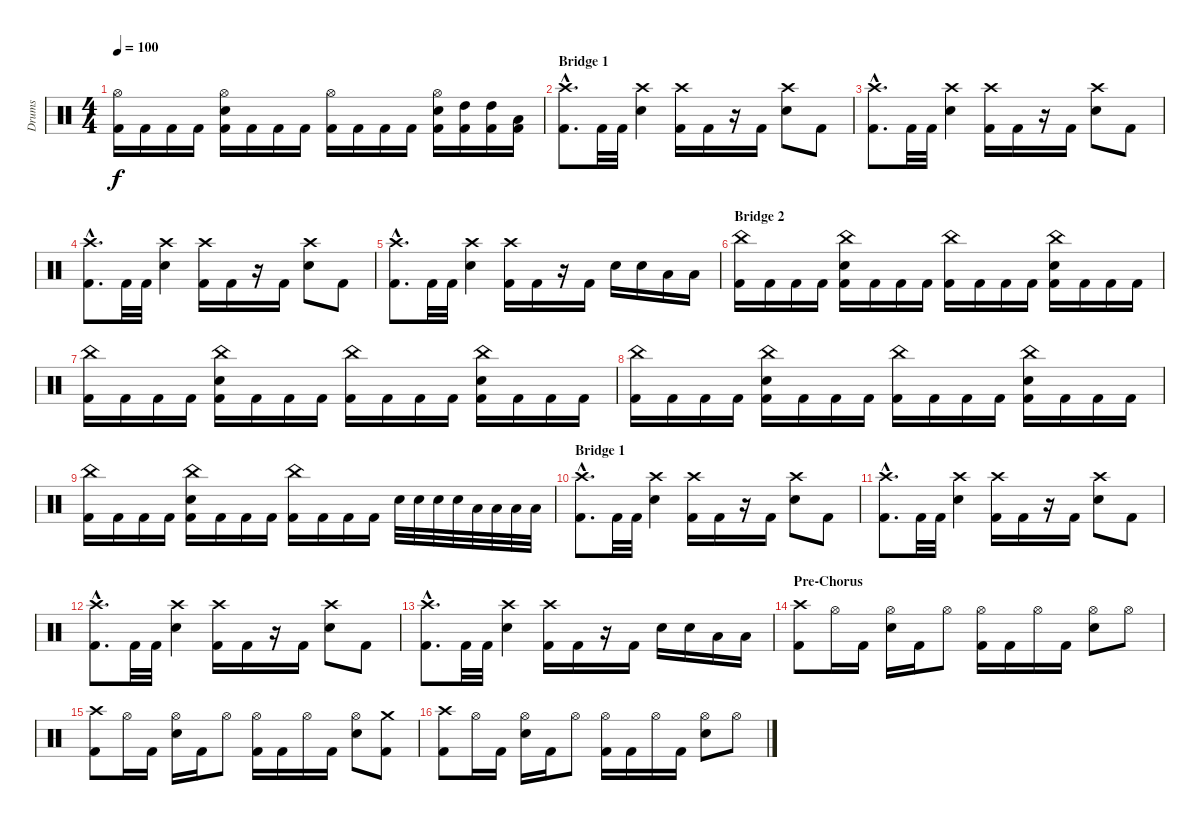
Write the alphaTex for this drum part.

\track ("Drums" "Drums") {instrument percussion}
\staff {score}
\articulation defaults
\ts (4 4)
\tempo 100
\clef neutral
\ks c
("Hi-Hat (open)" "Kick (hit) 2").16{dy f} "Kick (hit) 2".16 "Kick (hit) 2".16 "Kick (hit) 2".16 ("Hi-Hat (open)" "Snare (hit) 2" "Kick (hit) 2").16 "Kick (hit) 2".16 "Kick (hit) 2".16 "Kick (hit) 2".16 ("Hi-Hat (open)" "Kick (hit) 2").16 "Kick (hit) 2".16 "Kick (hit) 2".16 "Kick (hit) 2".16 ("Hi-Hat (open)" "Snare (hit) 2" "Kick (hit) 2").16 ("High Tom (hit)" "Kick (hit) 2").16 ("High Tom (hit)" "Kick (hit) 2").16 ("Low Tom (hit)" "Kick (hit) 2").16 |
\section ("" "Bridge 1")
("Crash high (hit)"{hac} "Kick (hit) 2"{hac}).8{d} "Kick (hit) 2".32 "Kick (hit) 2".32 ("Crash high (hit)" "Snare (hit) 2").4 ("Crash high (hit)" "Kick (hit) 2").16 "Kick (hit) 2".16 r.16 "Kick (hit) 2".16 ("Crash high (hit)" "Snare (hit) 2").8 "Kick (hit) 2".8 |
("Crash high (hit)"{hac} "Kick (hit) 2"{hac}).8{d} "Kick (hit) 2".32 "Kick (hit) 2".32 ("Crash high (hit)" "Snare (hit) 2").4 ("Crash high (hit)" "Kick (hit) 2").16 "Kick (hit) 2".16 r.16 "Kick (hit) 2".16 ("Crash high (hit)" "Snare (hit) 2").8 "Kick (hit) 2".8 |
("Crash high (hit)"{hac} "Kick (hit) 2"{hac}).8{d} "Kick (hit) 2".32 "Kick (hit) 2".32 ("Crash high (hit)" "Snare (hit) 2").4 ("Crash high (hit)" "Kick (hit) 2").16 "Kick (hit) 2".16 r.16 "Kick (hit) 2".16 ("Crash high (hit)" "Snare (hit) 2").8 "Kick (hit) 2".8 |
("Crash high (hit)"{hac} "Kick (hit) 2"{hac}).8{d} "Kick (hit) 2".32 "Kick (hit) 2".32 ("Crash high (hit)" "Snare (hit) 2").4 ("Crash high (hit)" "Kick (hit) 2").16 "Kick (hit) 2".16 r.16 "Kick (hit) 2".16 "Snare (hit) 2".16 "Snare (hit) 2".16 "Low Tom (hit)".16 "Low Tom (hit)".16 |
\section ("" "Bridge 2")
("China (hit)" "Kick (hit) 2").16 "Kick (hit) 2".16 "Kick (hit) 2".16 "Kick (hit) 2".16 ("China (hit)" "Snare (hit) 2" "Kick (hit) 2").16 "Kick (hit) 2".16 "Kick (hit) 2".16 "Kick (hit) 2".16 ("China (hit)" "Kick (hit) 2").16 "Kick (hit) 2".16 "Kick (hit) 2".16 "Kick (hit) 2".16 ("China (hit)" "Snare (hit) 2" "Kick (hit) 2").16 "Kick (hit) 2".16 "Kick (hit) 2".16 "Kick (hit) 2".16 |
("China (hit)" "Kick (hit) 2").16 "Kick (hit) 2".16 "Kick (hit) 2".16 "Kick (hit) 2".16 ("China (hit)" "Snare (hit) 2" "Kick (hit) 2").16 "Kick (hit) 2".16 "Kick (hit) 2".16 "Kick (hit) 2".16 ("China (hit)" "Kick (hit) 2").16 "Kick (hit) 2".16 "Kick (hit) 2".16 "Kick (hit) 2".16 ("China (hit)" "Snare (hit) 2" "Kick (hit) 2").16 "Kick (hit) 2".16 "Kick (hit) 2".16 "Kick (hit) 2".16 |
("China (hit)" "Kick (hit) 2").16 "Kick (hit) 2".16 "Kick (hit) 2".16 "Kick (hit) 2".16 ("China (hit)" "Snare (hit) 2" "Kick (hit) 2").16 "Kick (hit) 2".16 "Kick (hit) 2".16 "Kick (hit) 2".16 ("China (hit)" "Kick (hit) 2").16 "Kick (hit) 2".16 "Kick (hit) 2".16 "Kick (hit) 2".16 ("China (hit)" "Snare (hit) 2" "Kick (hit) 2").16 "Kick (hit) 2".16 "Kick (hit) 2".16 "Kick (hit) 2".16 |
("China (hit)" "Kick (hit) 2").16 "Kick (hit) 2".16 "Kick (hit) 2".16 "Kick (hit) 2".16 ("China (hit)" "Snare (hit) 2" "Kick (hit) 2").16 "Kick (hit) 2".16 "Kick (hit) 2".16 "Kick (hit) 2".16 ("China (hit)" "Kick (hit) 2").16 "Kick (hit) 2".16 "Kick (hit) 2".16 "Kick (hit) 2".16 "Snare (hit) 2".32 "Snare (hit) 2".32 "Snare (hit) 2".32 "Snare (hit) 2".32 "Low Tom (hit)".32 "Low Tom (hit)".32 "Low Tom (hit)".32 "Low Tom (hit)".32 |
\section ("" "Bridge 1")
("Crash high (hit)"{hac} "Kick (hit) 2"{hac}).8{d} "Kick (hit) 2".32 "Kick (hit) 2".32 ("Crash high (hit)" "Snare (hit) 2").4 ("Crash high (hit)" "Kick (hit) 2").16 "Kick (hit) 2".16 r.16 "Kick (hit) 2".16 ("Crash high (hit)" "Snare (hit) 2").8 "Kick (hit) 2".8 |
("Crash high (hit)"{hac} "Kick (hit) 2"{hac}).8{d} "Kick (hit) 2".32 "Kick (hit) 2".32 ("Crash high (hit)" "Snare (hit) 2").4 ("Crash high (hit)" "Kick (hit) 2").16 "Kick (hit) 2".16 r.16 "Kick (hit) 2".16 ("Crash high (hit)" "Snare (hit) 2").8 "Kick (hit) 2".8 |
("Crash high (hit)"{hac} "Kick (hit) 2"{hac}).8{d} "Kick (hit) 2".32 "Kick (hit) 2".32 ("Crash high (hit)" "Snare (hit) 2").4 ("Crash high (hit)" "Kick (hit) 2").16 "Kick (hit) 2".16 r.16 "Kick (hit) 2".16 ("Crash high (hit)" "Snare (hit) 2").8 "Kick (hit) 2".8 |
("Crash high (hit)"{hac} "Kick (hit) 2"{hac}).8{d} "Kick (hit) 2".32 "Kick (hit) 2".32 ("Crash high (hit)" "Snare (hit) 2").4 ("Crash high (hit)" "Kick (hit) 2").16 "Kick (hit) 2".16 r.16 "Kick (hit) 2".16 "Snare (hit) 2".16 "Snare (hit) 2".16 "Low Tom (hit)".16 "Low Tom (hit)".16 |
\section ("" "Pre-Chorus")
("Crash high (hit)" "Kick (hit) 2").8 "Hi-Hat (open)".16 "Kick (hit) 2".16 ("Hi-Hat (open)" "Snare (hit) 2").16 "Kick (hit) 2".16 "Hi-Hat (open)".8 ("Hi-Hat (open)" "Kick (hit) 2").16 "Kick (hit) 2".16 "Hi-Hat (open)".16 "Kick (hit) 2".16 ("Hi-Hat (open)" "Snare (hit) 2").8 "Hi-Hat (open)".8 |
("Crash high (hit)" "Kick (hit) 2").8 "Hi-Hat (open)".16 "Kick (hit) 2".16 ("Hi-Hat (open)" "Snare (hit) 2").16 "Kick (hit) 2".16 "Hi-Hat (open)".8 ("Hi-Hat (open)" "Kick (hit) 2").16 "Kick (hit) 2".16 "Hi-Hat (open)".16 "Kick (hit) 2".16 ("Hi-Hat (open)" "Snare (hit) 2").8 ("Crash medium (hit)" "Kick (hit) 2").8 |
("Crash high (hit)" "Kick (hit) 2").8 "Hi-Hat (open)".16 "Kick (hit) 2".16 ("Hi-Hat (open)" "Snare (hit) 2").16 "Kick (hit) 2".16 "Hi-Hat (open)".8 ("Hi-Hat (open)" "Kick (hit) 2").16 "Kick (hit) 2".16 "Hi-Hat (open)".16 "Kick (hit) 2".16 ("Hi-Hat (open)" "Snare (hit) 2").8 "Hi-Hat (open)".8
